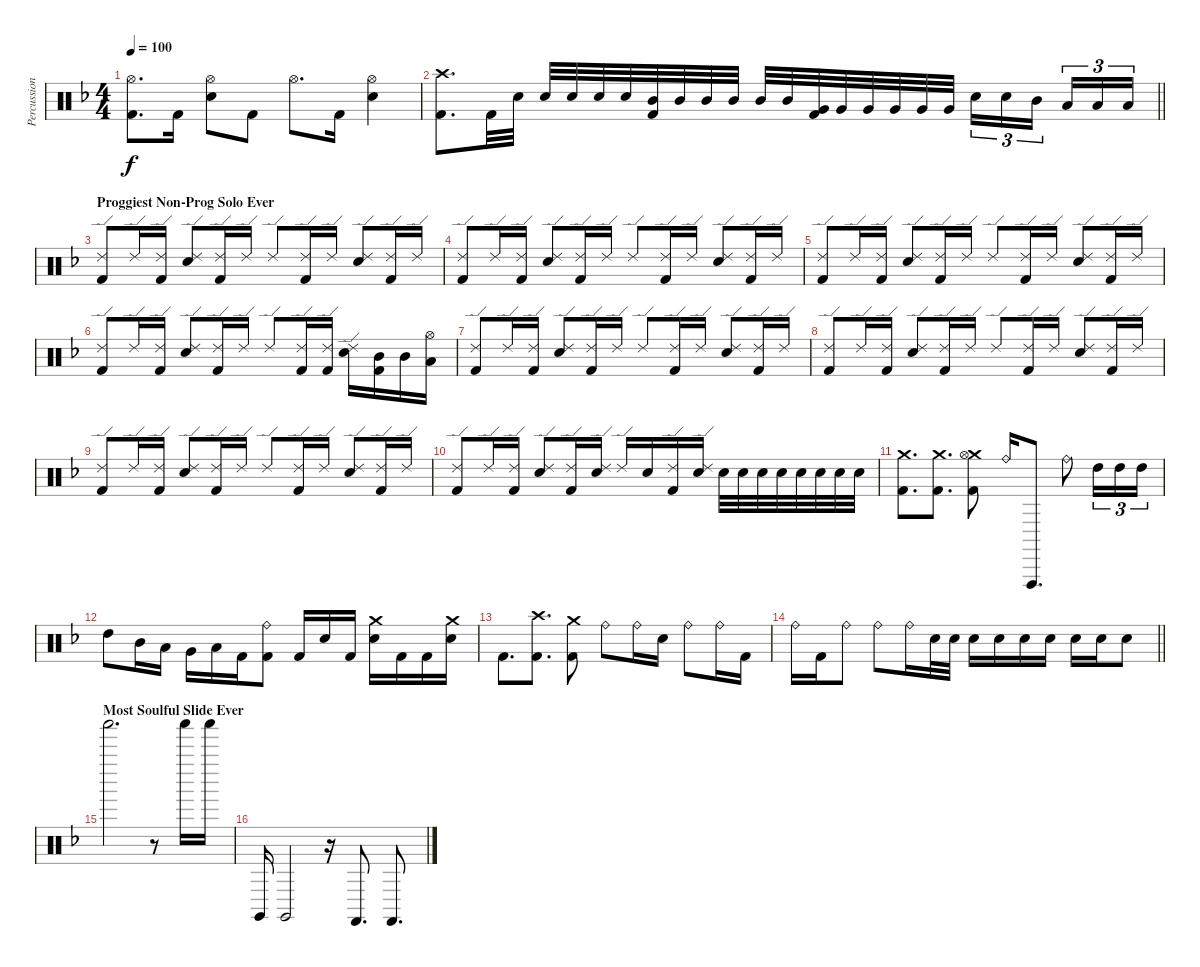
\track ("Percussion" "Percussion") {instrument percussion}
\staff {score}
\articulation defaults
\ts (4 4)
\tempo 100
\clef neutral
\ks dminor
("Hi-Hat (open)" "Kick (hit) 2").8{d dy f} "Kick (hit) 2".16 ("Hi-Hat (open)" "Snare (hit) 2").8 "Kick (hit) 2".8 "Hi-Hat (open)".8{d} "Kick (hit) 2".16 ("Hi-Hat (open)" "Snare (hit) 2").4 |
\barLineRight lightlight
("Crash high (hit)" "Kick (hit) 2").8{d} "Kick (hit) 2".32 "Snare (hit) 2".32 "Snare (hit) 2".32 "Snare (hit) 2".32 "Snare (hit) 2".32 "Snare (hit) 2".32 ("Mid Tom (hit)" "Kick (hit) 2").32 "Mid Tom (hit)".32 "Mid Tom (hit)".32 "Mid Tom (hit)".32 "Mid Tom (hit)".32 "Mid Tom (hit)".32 ("Very Low Tom (hit)" "Kick (hit) 2").32 "Very Low Tom (hit)".32 "Very Low Tom (hit)".32 "Very Low Tom (hit)".32 "Very Low Tom (hit)".32 "Very Low Tom (hit)".32 "Snare (hit) 2".16{tu (3 2)} "Snare (hit) 2".16{tu (3 2)} "Mid Tom (hit)".16{tu (3 2) beam splitsecondary} "Low Tom (hit)".16{tu (3 2)} "Low Tom (hit)".16{tu (3 2)} "Low Floor Tom (hit)".16{tu (3 2)} |
\section ("" "Proggiest Non-Prog Solo Ever")
("Ride (edge) 2" "Kick (hit) 2").8 "Ride (edge) 2".16 ("Ride (edge) 2" "Kick (hit) 2").16 ("Ride (edge) 2" "Snare (hit) 2").8 ("Ride (edge) 2" "Kick (hit) 2").16 "Ride (edge) 2".16 "Ride (edge) 2".8 ("Ride (edge) 2" "Kick (hit) 2").16 "Ride (edge) 2".16 ("Ride (edge) 2" "Snare (hit) 2").8 ("Ride (edge) 2" "Kick (hit) 2").16 "Ride (edge) 2".16 |
("Ride (edge) 2" "Kick (hit) 2").8 "Ride (edge) 2".16 ("Ride (edge) 2" "Kick (hit) 2").16 ("Ride (edge) 2" "Snare (hit) 2").8 ("Ride (edge) 2" "Kick (hit) 2").16 "Ride (edge) 2".16 "Ride (edge) 2".8 ("Ride (edge) 2" "Kick (hit) 2").16 "Ride (edge) 2".16 ("Ride (edge) 2" "Snare (hit) 2").8 ("Ride (edge) 2" "Kick (hit) 2").16 "Ride (edge) 2".16 |
("Ride (edge) 2" "Kick (hit) 2").8 "Ride (edge) 2".16 ("Ride (edge) 2" "Kick (hit) 2").16 ("Ride (edge) 2" "Snare (hit) 2").8 ("Ride (edge) 2" "Kick (hit) 2").16 "Ride (edge) 2".16 "Ride (edge) 2".8 ("Ride (edge) 2" "Kick (hit) 2").16 "Ride (edge) 2".16 ("Ride (edge) 2" "Snare (hit) 2").8 ("Ride (edge) 2" "Kick (hit) 2").16 "Ride (edge) 2".16 |
("Ride (edge) 2" "Kick (hit) 2").8 "Ride (edge) 2".16 ("Ride (edge) 2" "Kick (hit) 2").16 ("Ride (edge) 2" "Snare (hit) 2").8 ("Ride (edge) 2" "Kick (hit) 2").16 "Ride (edge) 2".16 "Ride (edge) 2".8 ("Ride (edge) 2" "Kick (hit) 2").16 ("Ride (edge) 2" "Kick (hit) 2").16 ("Ride (edge) 2" "Snare (hit) 2").16 ("Mid Tom (hit)" "Kick (hit) 2").16 "Mid Tom (hit)".16 ("Hi-Hat (open)" "Low Tom (hit)").16 |
("Ride (edge) 2" "Kick (hit) 2").8 "Ride (edge) 2".16 ("Ride (edge) 2" "Kick (hit) 2").16 ("Ride (edge) 2" "Snare (hit) 2").8 ("Ride (edge) 2" "Kick (hit) 2").16 "Ride (edge) 2".16 "Ride (edge) 2".8 ("Ride (edge) 2" "Kick (hit) 2").16 "Ride (edge) 2".16 ("Ride (edge) 2" "Snare (hit) 2").8 ("Ride (edge) 2" "Kick (hit) 2").16 "Ride (edge) 2".16 |
("Ride (edge) 2" "Kick (hit) 2").8 "Ride (edge) 2".16 ("Ride (edge) 2" "Kick (hit) 2").16 ("Ride (edge) 2" "Snare (hit) 2").8 ("Ride (edge) 2" "Kick (hit) 2").16 "Ride (edge) 2".16 "Ride (edge) 2".8 ("Ride (edge) 2" "Kick (hit) 2").16 "Ride (edge) 2".16 ("Ride (edge) 2" "Snare (hit) 2").8 ("Ride (edge) 2" "Kick (hit) 2").16 "Ride (edge) 2".16 |
("Ride (edge) 2" "Kick (hit) 2").8 "Ride (edge) 2".16 ("Ride (edge) 2" "Kick (hit) 2").16 ("Ride (edge) 2" "Snare (hit) 2").8 ("Ride (edge) 2" "Kick (hit) 2").16 "Ride (edge) 2".16 "Ride (edge) 2".8 ("Ride (edge) 2" "Kick (hit) 2").16 "Ride (edge) 2".16 ("Ride (edge) 2" "Snare (hit) 2").8 ("Ride (edge) 2" "Kick (hit) 2").16 "Ride (edge) 2".16 |
("Ride (edge) 2" "Kick (hit) 2").8 "Ride (edge) 2".16 ("Ride (edge) 2" "Kick (hit) 2").16 ("Ride (edge) 2" "Snare (hit) 2").8 ("Ride (edge) 2" "Kick (hit) 2").16 ("Ride (edge) 2" "Snare (hit) 2").16 "Ride (edge) 2".16 "Snare (hit) 2".16 ("Ride (edge) 2" "Kick (hit) 2").16 ("Ride (edge) 2" "Snare (hit) 2").16 "Snare (hit) 2".32 "Snare (hit) 2".32 "Snare (hit) 2".32 "Snare (hit) 2".32 "Snare (hit) 2".32 "Snare (hit) 2".32 "Snare (hit) 2".32 "Snare (hit) 2".32 |
("Crash medium (hit)" "Kick (hit) 2").8{d} ("Crash medium (hit)" "Kick (hit) 2").8{d} ("Crash medium (hit)" "Hi-Hat (open)" "Kick (hit) 2").8 "Ride (bell)".16 "Vibraslap (hit)".8{d} "Ride (bell)".8 "High Tom (hit)".16{tu (3 2)} "High Tom (hit)".16{tu (3 2)} "High Tom (hit)".16{tu (3 2)} |
"High Tom (hit)".8 "Mid Tom (hit)".16 "Low Tom (hit)".16 "Very Low Tom (hit)".16 "Low Floor Tom (hit)".16 "Kick (hit) 2".16 ("Ride (bell)" "Kick (hit) 2").8 "Kick (hit) 2".16 "Snare (hit) 2".16 "Kick (hit) 2".16 ("Crash medium (hit)" "Snare (hit) 2").16 "Kick (hit) 2".16 "Kick (hit) 2".16 ("Crash medium (hit)" "Snare (hit) 2").16 |
"Kick (hit) 2".8{d} ("Crash high (hit)" "Kick (hit) 2").8{d} ("Crash medium (hit)" "Kick (hit) 2").8 "Ride (bell)".8 "Ride (bell)".16 "Snare (hit) 2".16 "Ride (bell)".8 "Ride (bell)".16 "Kick (hit) 2".16 |
\barLineRight lightlight "Ride (bell)".16 "Kick (hit) 2".16 "Ride (bell)".8 "Ride (bell)".8 "Ride (bell)".16 "Snare (hit) 2".32 "Snare (hit) 2".32 "Snare (hit) 2".16 "Snare (hit) 2".16 "Snare (hit) 2".16 "Snare (hit) 2".16 "Snare (hit) 2".16 "Snare (hit) 2".16 "Snare (hit) 2".8
|
\section ("" "Most Soulful Slide Ever")
"Shaker (hit)".2{d} r.8 "Shaker (hit)".16 "Shaker (hit)".16 |
"Claves (hit)".16 "Claves (hit)".2 r.16 "Castanets (hit)".8{d} "Castanets (hit)".8{d}
